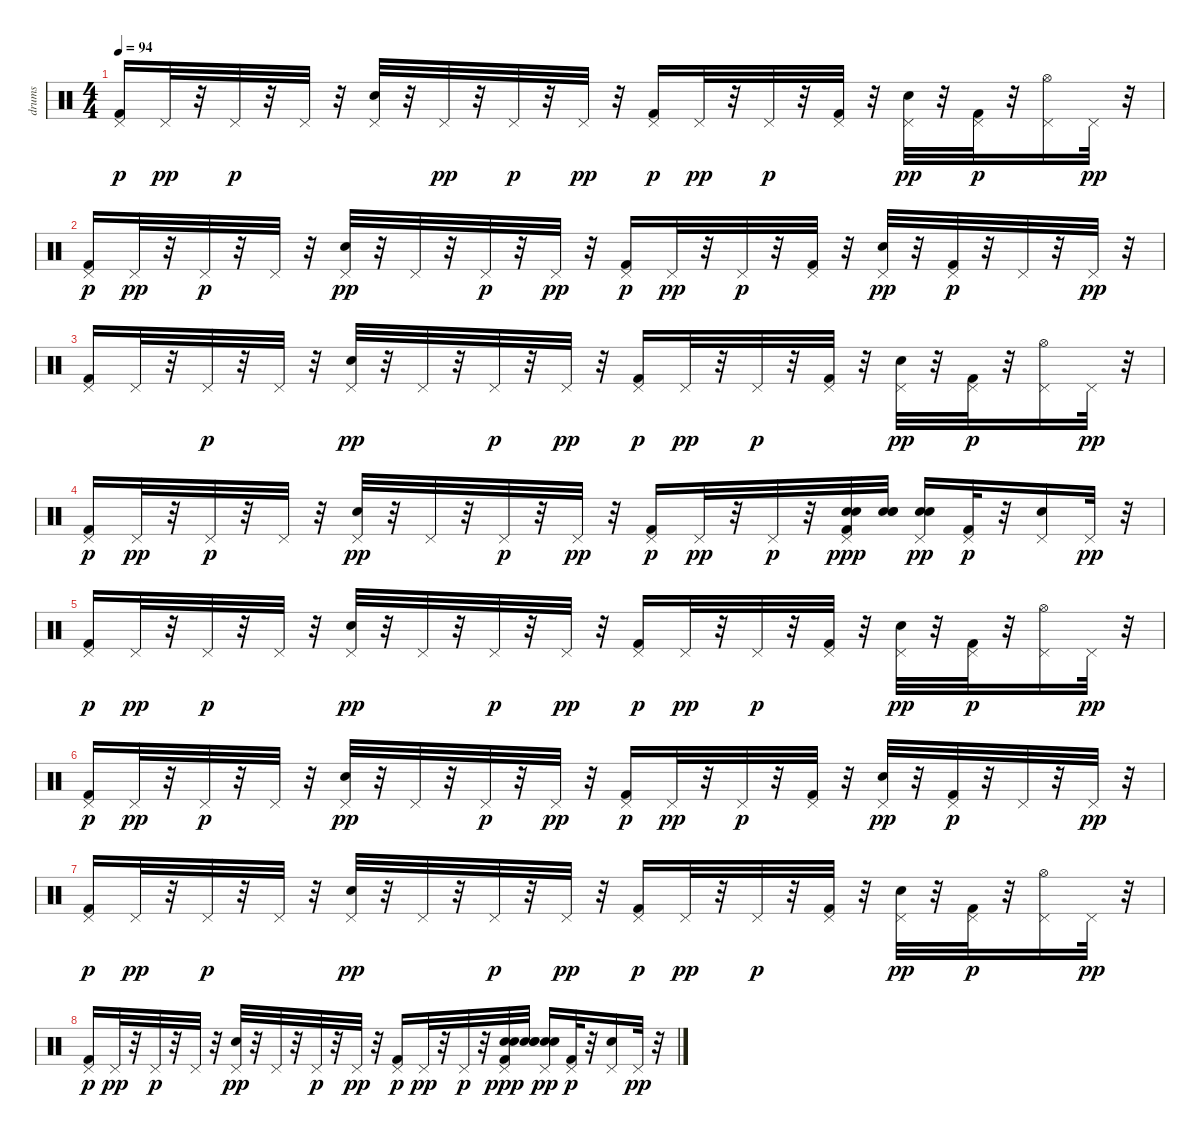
\track ("drums" "drums") {instrument percussion}
\staff {score}
\articulation defaults
\ts (4 4)
\tempo 94
\clef neutral
\ks c
("Pedal Hi-Hat (hit)" "Kick (hit) 2").16{dy p} "Pedal Hi-Hat (hit)".32{dy pp} r.32 "Pedal Hi-Hat (hit)".32{dy p} r.32 "Pedal Hi-Hat (hit)".32 r.32 ("Pedal Hi-Hat (hit)" "Snare (hit) 2").32 r.32 "Pedal Hi-Hat (hit)".32{dy pp} r.32 "Pedal Hi-Hat (hit)".32{dy p} r.32 "Pedal Hi-Hat (hit)".32{dy pp} r.32 ("Pedal Hi-Hat (hit)" "Kick (hit) 2").16{dy p} "Pedal Hi-Hat (hit)".32{dy pp} r.32 "Pedal Hi-Hat (hit)".32{dy p} r.32 ("Pedal Hi-Hat (hit)" "Kick (hit) 2").32 r.32 ("Snare (hit) 2" "Pedal Hi-Hat (hit)").32{dy pp} r.32 ("Pedal Hi-Hat (hit)" "Kick (hit) 2").32{dy p} r.32 ("Hi-Hat (open)" "Pedal Hi-Hat (hit)").16 "Pedal Hi-Hat (hit)".32{dy pp} r.32 |
("Pedal Hi-Hat (hit)" "Kick (hit) 2").16{dy p} "Pedal Hi-Hat (hit)".32{dy pp} r.32 "Pedal Hi-Hat (hit)".32{dy p} r.32 "Pedal Hi-Hat (hit)".32 r.32 ("Snare (hit) 2" "Pedal Hi-Hat (hit)").32{dy pp} r.32 "Pedal Hi-Hat (hit)".32 r.32 "Pedal Hi-Hat (hit)".32{dy p} r.32 "Pedal Hi-Hat (hit)".32{dy pp} r.32 ("Pedal Hi-Hat (hit)" "Kick (hit) 2").16{dy p} "Pedal Hi-Hat (hit)".32{dy pp} r.32 "Pedal Hi-Hat (hit)".32{dy p} r.32 ("Pedal Hi-Hat (hit)" "Kick (hit) 2").32 r.32 ("Snare (hit) 2" "Pedal Hi-Hat (hit)").32{dy pp} r.32 ("Pedal Hi-Hat (hit)" "Kick (hit) 2").32{dy p} r.32 "Pedal Hi-Hat (hit)".32 r.32 "Pedal Hi-Hat (hit)".32{dy pp} r.32 |
("Kick (hit) 2" "Pedal Hi-Hat (hit)").16 "Pedal Hi-Hat (hit)".32 r.32 "Pedal Hi-Hat (hit)".32{dy p} r.32 "Pedal Hi-Hat (hit)".32 r.32 ("Snare (hit) 2" "Pedal Hi-Hat (hit)").32{dy pp} r.32 "Pedal Hi-Hat (hit)".32 r.32 "Pedal Hi-Hat (hit)".32{dy p} r.32 "Pedal Hi-Hat (hit)".32{dy pp} r.32 ("Pedal Hi-Hat (hit)" "Kick (hit) 2").16{dy p} "Pedal Hi-Hat (hit)".32{dy pp} r.32 "Pedal Hi-Hat (hit)".32{dy p} r.32 ("Pedal Hi-Hat (hit)" "Kick (hit) 2").32 r.32 ("Snare (hit) 2" "Pedal Hi-Hat (hit)").32{dy pp} r.32 ("Pedal Hi-Hat (hit)" "Kick (hit) 2").32{dy p} r.32 ("Hi-Hat (open)" "Pedal Hi-Hat (hit)").16 "Pedal Hi-Hat (hit)".32{dy pp} r.32 |
("Pedal Hi-Hat (hit)" "Kick (hit) 2").16{dy p} "Pedal Hi-Hat (hit)".32{dy pp} r.32 "Pedal Hi-Hat (hit)".32{dy p} r.32 "Pedal Hi-Hat (hit)".32 r.32 ("Snare (hit) 2" "Pedal Hi-Hat (hit)").32{dy pp} r.32 "Pedal Hi-Hat (hit)".32 r.32 "Pedal Hi-Hat (hit)".32{dy p} r.32 "Pedal Hi-Hat (hit)".32{dy pp} r.32 ("Pedal Hi-Hat (hit)" "Kick (hit) 2").16{dy p} "Pedal Hi-Hat (hit)".32{dy pp} r.32 "Pedal Hi-Hat (hit)".32{dy p} r.32 ("Snare (hit) 2" "Pedal Hi-Hat (hit)" "Kick (hit) 2" "Snare (hit) 2").32{dy ppp} ("Snare (hit) 2" "Snare (hit) 2" "Snare (hit) 2").32 ("Snare (hit) 2" "Snare (hit) 2" "Pedal Hi-Hat (hit)").16{dy pp} ("Pedal Hi-Hat (hit)" "Kick (hit) 2").32{dy p balance 8} r.32 ("Snare (hit) 2" "Pedal Hi-Hat (hit)").16 "Pedal Hi-Hat (hit)".32{dy pp} r.32 |
("Pedal Hi-Hat (hit)" "Kick (hit) 2").16{dy p} "Pedal Hi-Hat (hit)".32{dy pp} r.32 "Pedal Hi-Hat (hit)".32{dy p} r.32 "Pedal Hi-Hat (hit)".32 r.32 ("Snare (hit) 2" "Pedal Hi-Hat (hit)").32{dy pp} r.32 "Pedal Hi-Hat (hit)".32 r.32 "Pedal Hi-Hat (hit)".32{dy p} r.32 "Pedal Hi-Hat (hit)".32{dy pp} r.32 ("Pedal Hi-Hat (hit)" "Kick (hit) 2").16{dy p} "Pedal Hi-Hat (hit)".32{dy pp} r.32 "Pedal Hi-Hat (hit)".32{dy p} r.32 ("Pedal Hi-Hat (hit)" "Kick (hit) 2").32 r.32 ("Snare (hit) 2" "Pedal Hi-Hat (hit)").32{dy pp} r.32 ("Pedal Hi-Hat (hit)" "Kick (hit) 2").32{dy p} r.32 ("Hi-Hat (open)" "Pedal Hi-Hat (hit)").16 "Pedal Hi-Hat (hit)".32{dy pp} r.32 |
("Pedal Hi-Hat (hit)" "Kick (hit) 2").16{dy p} "Pedal Hi-Hat (hit)".32{dy pp} r.32 "Pedal Hi-Hat (hit)".32{dy p} r.32 "Pedal Hi-Hat (hit)".32 r.32 ("Snare (hit) 2" "Pedal Hi-Hat (hit)").32{dy pp} r.32 "Pedal Hi-Hat (hit)".32 r.32 "Pedal Hi-Hat (hit)".32{dy p} r.32 "Pedal Hi-Hat (hit)".32{dy pp} r.32 ("Pedal Hi-Hat (hit)" "Kick (hit) 2").16{dy p} "Pedal Hi-Hat (hit)".32{dy pp} r.32 "Pedal Hi-Hat (hit)".32{dy p} r.32 ("Pedal Hi-Hat (hit)" "Kick (hit) 2").32 r.32 ("Snare (hit) 2" "Pedal Hi-Hat (hit)").32{dy pp} r.32 ("Pedal Hi-Hat (hit)" "Kick (hit) 2").32{dy p} r.32 "Pedal Hi-Hat (hit)".32 r.32 "Pedal Hi-Hat (hit)".32{dy pp} r.32 |
("Pedal Hi-Hat (hit)" "Kick (hit) 2").16{dy p volume 14} "Pedal Hi-Hat (hit)".32{dy pp} r.32 "Pedal Hi-Hat (hit)".32{dy p} r.32 "Pedal Hi-Hat (hit)".32 r.32 ("Snare (hit) 2" "Pedal Hi-Hat (hit)").32{dy pp} r.32 "Pedal Hi-Hat (hit)".32 r.32 "Pedal Hi-Hat (hit)".32{dy p} r.32 "Pedal Hi-Hat (hit)".32{dy pp} r.32 ("Pedal Hi-Hat (hit)" "Kick (hit) 2").16{dy p} "Pedal Hi-Hat (hit)".32{dy pp} r.32 "Pedal Hi-Hat (hit)".32{dy p} r.32 ("Pedal Hi-Hat (hit)" "Kick (hit) 2").32 r.32 ("Snare (hit) 2" "Pedal Hi-Hat (hit)").32{dy pp} r.32 ("Pedal Hi-Hat (hit)" "Kick (hit) 2").32{dy p} r.32 ("Hi-Hat (open)" "Pedal Hi-Hat (hit)").16 "Pedal Hi-Hat (hit)".32{dy pp} r.32 |
("Pedal Hi-Hat (hit)" "Kick (hit) 2").16{dy p} "Pedal Hi-Hat (hit)".32{dy pp} r.32 "Pedal Hi-Hat (hit)".32{dy p} r.32 "Pedal Hi-Hat (hit)".32 r.32 ("Snare (hit) 2" "Pedal Hi-Hat (hit)").32{dy pp} r.32 "Pedal Hi-Hat (hit)".32 r.32 "Pedal Hi-Hat (hit)".32{dy p} r.32 "Pedal Hi-Hat (hit)".32{dy pp} r.32 ("Pedal Hi-Hat (hit)" "Kick (hit) 2").16{dy p} "Pedal Hi-Hat (hit)".32{dy pp} r.32 "Pedal Hi-Hat (hit)".32{dy p} r.32 ("Snare (hit) 2" "Pedal Hi-Hat (hit)" "Kick (hit) 2" "Snare (hit) 2").32{dy ppp balance 0} ("Snare (hit) 2" "Snare (hit) 2" "Snare (hit) 2").32 ("Snare (hit) 2" "Snare (hit) 2" "Pedal Hi-Hat (hit)").16{dy pp} ("Pedal Hi-Hat (hit)" "Kick (hit) 2").32{dy p balance 8} r.32 ("Snare (hit) 2" "Pedal Hi-Hat (hit)").16 "Pedal Hi-Hat (hit)".32{dy pp} r.32
